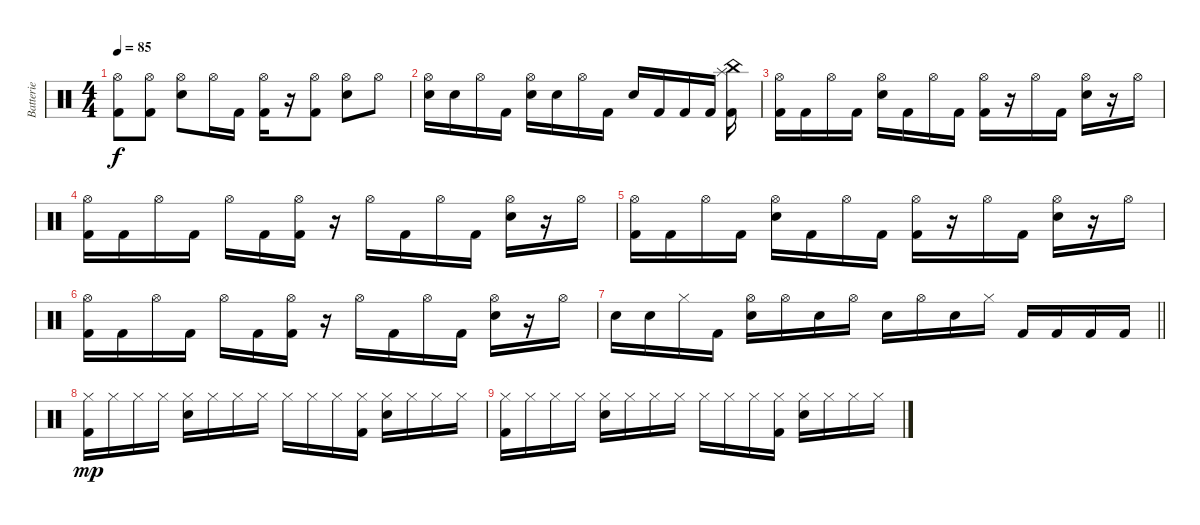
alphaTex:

\track ("Batterie" "Batterie") {instrument percussion}
\staff {score}
\articulation defaults
\ts (4 4)
\tempo 85
\clef neutral
\ks c
("Hi-Hat (open)" "Kick (hit) 2").8{dy f} ("Hi-Hat (open)" "Kick (hit) 2").8 ("Hi-Hat (open)" "Snare (hit) 2").8 "Hi-Hat (open)".16 "Kick (hit) 2".16 ("Hi-Hat (open)" "Kick (hit) 2").16 r.16 ("Hi-Hat (open)" "Kick (hit) 2").8 ("Hi-Hat (open)" "Snare (hit) 2").8 "Hi-Hat (open)".8 |
("Hi-Hat (open)" "Snare (hit) 2").16 "Snare (hit) 2".16 "Hi-Hat (open)".16 "Kick (hit) 2".16 ("Hi-Hat (open)" "Snare (hit) 2").16 "Snare (hit) 2".16 "Hi-Hat (open)".16 "Kick (hit) 2".16 "Snare (hit) 2".16 "Kick (hit) 2".16 "Kick (hit) 2".16 "Kick (hit) 2".16 ("Splash (hit)" "China (hit)" "Kick (hit) 2").16 |
("Hi-Hat (open)" "Kick (hit) 2").16 "Kick (hit) 2".16 "Hi-Hat (open)".16 "Kick (hit) 2".16 ("Hi-Hat (open)" "Snare (hit) 2").16 "Kick (hit) 2".16 "Hi-Hat (open)".16 "Kick (hit) 2".16 ("Hi-Hat (open)" "Kick (hit) 2").16 r.16 "Hi-Hat (open)".16 "Kick (hit) 2".16 ("Hi-Hat (open)" "Snare (hit) 2").16 r.16 "Hi-Hat (open)".16 |
("Kick (hit) 2" "Hi-Hat (open)").16 "Kick (hit) 2".16 "Hi-Hat (open)".16 "Kick (hit) 2".16 "Hi-Hat (open)".16 "Kick (hit) 2".16 ("Hi-Hat (open)" "Kick (hit) 2").16 r.16 "Hi-Hat (open)".16 "Kick (hit) 2".16 "Hi-Hat (open)".16 "Kick (hit) 2".16 ("Snare (hit) 2" "Hi-Hat (open)").16 r.16 "Hi-Hat (open)".16 |
("Hi-Hat (open)" "Kick (hit) 2").16 "Kick (hit) 2".16 "Hi-Hat (open)".16 "Kick (hit) 2".16 ("Hi-Hat (open)" "Snare (hit) 2").16 "Kick (hit) 2".16 "Hi-Hat (open)".16 "Kick (hit) 2".16 ("Hi-Hat (open)" "Kick (hit) 2").16 r.16 "Hi-Hat (open)".16 "Kick (hit) 2".16 ("Hi-Hat (open)" "Snare (hit) 2").16 r.16 "Hi-Hat (open)".16 |
("Kick (hit) 2" "Hi-Hat (open)").16 "Kick (hit) 2".16 "Hi-Hat (open)".16 "Kick (hit) 2".16 "Hi-Hat (open)".16 "Kick (hit) 2".16 ("Hi-Hat (open)" "Kick (hit) 2").16 r.16 "Hi-Hat (open)".16 "Kick (hit) 2".16 "Hi-Hat (open)".16 "Kick (hit) 2".16 ("Snare (hit) 2" "Hi-Hat (open)").16 r.16 "Hi-Hat (open)".16 |
\barLineRight lightlight "Snare (hit) 2".16 "Snare (hit) 2".16 "Hi-Hat (closed)".16 "Kick (hit) 2".16
("Hi-Hat (open)" "Snare (hit) 2").16 "Hi-Hat (open)".16 "Snare (hit) 2".16 "Hi-Hat (open)".16 "Snare (hit) 2".16 "Hi-Hat (open)".16 "Snare (hit) 2".16 "Hi-Hat (closed)".16 "Kick (hit) 2".16 "Kick (hit) 2".16 "Kick (hit) 2".16 "Kick (hit) 2".16 |
("Hi-Hat (closed)" "Kick (hit) 2").16{dy mp} "Hi-Hat (closed)".16 "Hi-Hat (closed)".16 "Hi-Hat (closed)".16 ("Hi-Hat (closed)" "Snare (hit) 2").16 "Hi-Hat (closed)".16 "Hi-Hat (closed)".16 "Hi-Hat (closed)".16 "Hi-Hat (closed)".16 "Hi-Hat (closed)".16 "Hi-Hat (closed)".16 ("Hi-Hat (closed)" "Kick (hit) 2").16 ("Hi-Hat (closed)" "Snare (hit) 2").16 "Hi-Hat (closed)".16 "Hi-Hat (closed)".16 "Hi-Hat (closed)".16 |
("Hi-Hat (closed)" "Kick (hit) 2").16 "Hi-Hat (closed)".16 "Hi-Hat (closed)".16 "Hi-Hat (closed)".16 ("Hi-Hat (closed)" "Snare (hit) 2").16 "Hi-Hat (closed)".16 "Hi-Hat (closed)".16 "Hi-Hat (closed)".16 "Hi-Hat (closed)".16 "Hi-Hat (closed)".16 "Hi-Hat (closed)".16 ("Hi-Hat (closed)" "Kick (hit) 2").16 ("Hi-Hat (closed)" "Snare (hit) 2").16 "Hi-Hat (closed)".16 "Hi-Hat (closed)".16 "Hi-Hat (closed)".16
